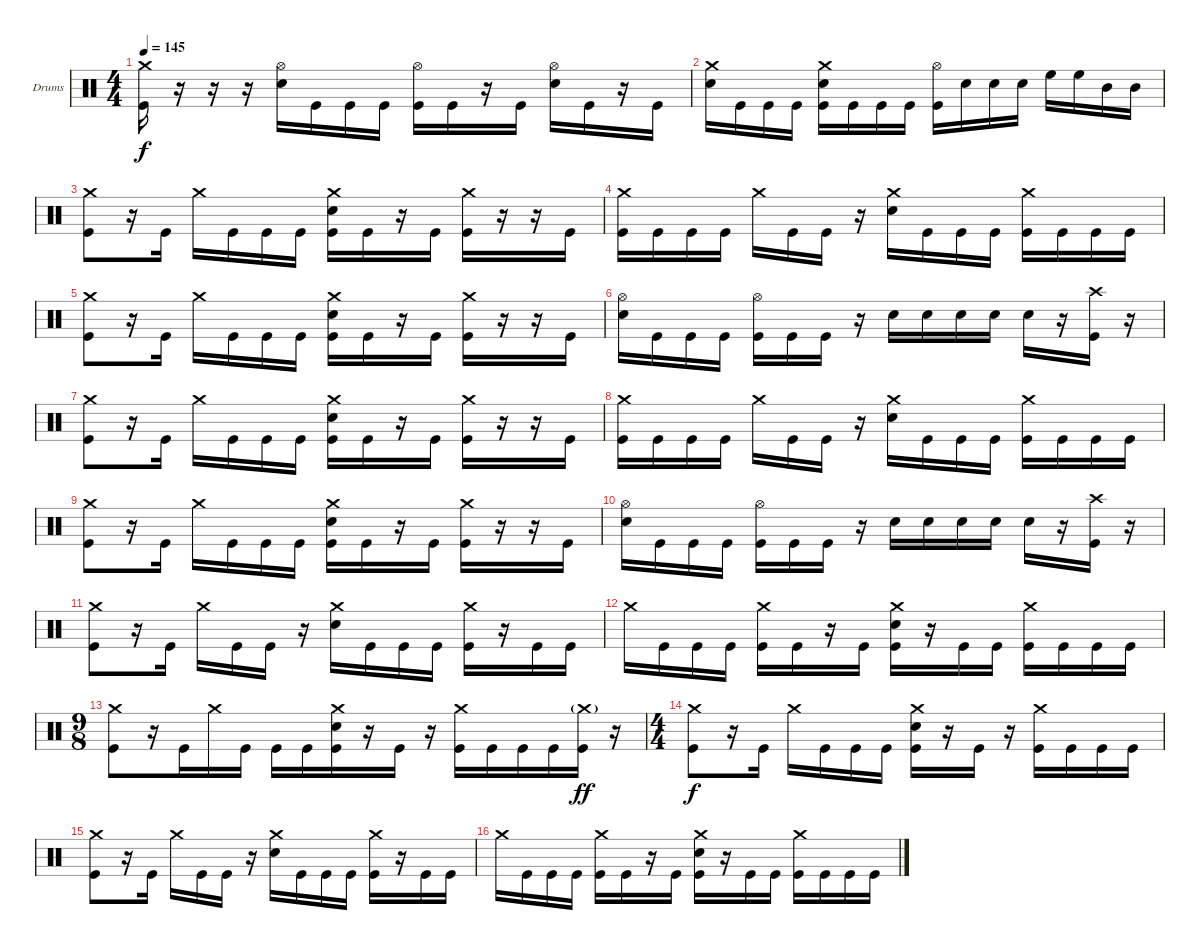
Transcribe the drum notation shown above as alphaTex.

\bracketExtendMode groupsimilarinstruments
\firstSystemTrackNameOrientation horizontal
\otherSystemsTrackNameOrientation horizontal
\track ("Drumkit" "Drums") {instrument percussion}
\staff {score}
\articulation defaults
\ts (4 4)
\tempo 145
\clef neutral
\ks c
("Crash medium (hit)" "Kick (hit)").16{dy f} r.16 r.16 r.16 ("Hi-Hat (open)" "Snare (hit) 2").16 "Kick (hit)".16 "Kick (hit)".16 "Kick (hit)".16 ("Hi-Hat (open)" "Kick (hit)").16 "Kick (hit)".16 r.16 "Kick (hit)".16 ("Hi-Hat (open)" "Snare (hit) 2").16 "Kick (hit)".16 r.16 "Kick (hit)".16 |
("Crash medium (hit)" "Snare (hit) 2").16 "Kick (hit)".16 "Kick (hit)".16 "Kick (hit)".16 ("Crash medium (hit)" "Snare (hit) 2" "Kick (hit)").16 "Kick (hit)".16 "Kick (hit)".16 "Kick (hit)".16 ("Hi-Hat (open)" "Kick (hit)").16 "Snare (hit) 2".16 "Snare (hit) 2".16 "Snare (hit) 2".16 "High Floor Tom (hit)".16 "High Floor Tom (hit)".16 "Mid Tom (hit)".16 "Mid Tom (hit)".16 |
("Crash medium (hit)" "Kick (hit)").8 r.16 "Kick (hit)".16 "Crash medium (hit)".16 "Kick (hit)".16 "Kick (hit)".16 "Kick (hit)".16 ("Crash medium (hit)" "Snare (hit) 2" "Kick (hit)").16 "Kick (hit)".16 r.16 "Kick (hit)".16 ("Crash medium (hit)" "Kick (hit)").16 r.16 r.16 "Kick (hit)".16 |
("Crash medium (hit)" "Kick (hit)").16 "Kick (hit)".16 "Kick (hit)".16 "Kick (hit)".16 "Crash medium (hit)".16 "Kick (hit)".16 "Kick (hit)".16 r.16 ("Crash medium (hit)" "Snare (hit) 2").16 "Kick (hit)".16 "Kick (hit)".16 "Kick (hit)".16 ("Crash medium (hit)" "Kick (hit)").16 "Kick (hit)".16 "Kick (hit)".16 "Kick (hit)".16 |
("Crash medium (hit)" "Kick (hit)").8 r.16 "Kick (hit)".16 "Crash medium (hit)".16 "Kick (hit)".16 "Kick (hit)".16 "Kick (hit)".16 ("Crash medium (hit)" "Snare (hit) 2" "Kick (hit)").16 "Kick (hit)".16 r.16 "Kick (hit)".16 ("Crash medium (hit)" "Kick (hit)").16 r.16 r.16 "Kick (hit)".16 |
("Hi-Hat (open)" "Snare (hit) 2").16 "Kick (hit)".16 "Kick (hit)".16 "Kick (hit)".16 ("Hi-Hat (open)" "Kick (hit)").16 "Kick (hit)".16 "Kick (hit)".16 r.16 "Snare (hit) 2".16 "Snare (hit) 2".16 "Snare (hit) 2".16 "Snare (hit) 2".16 "Snare (hit) 2".16 r.16 ("Crash high (hit)" "Kick (hit)").16 r.16 |
("Crash medium (hit)" "Kick (hit)").8 r.16 "Kick (hit)".16 "Crash medium (hit)".16 "Kick (hit)".16 "Kick (hit)".16 "Kick (hit)".16 ("Crash medium (hit)" "Snare (hit) 2" "Kick (hit)").16 "Kick (hit)".16 r.16 "Kick (hit)".16 ("Crash medium (hit)" "Kick (hit)").16 r.16 r.16 "Kick (hit)".16 |
("Crash medium (hit)" "Kick (hit)").16 "Kick (hit)".16 "Kick (hit)".16 "Kick (hit)".16 "Crash medium (hit)".16 "Kick (hit)".16 "Kick (hit)".16 r.16 ("Crash medium (hit)" "Snare (hit) 2").16 "Kick (hit)".16 "Kick (hit)".16 "Kick (hit)".16 ("Crash medium (hit)" "Kick (hit)").16 "Kick (hit)".16 "Kick (hit)".16 "Kick (hit)".16 |
("Crash medium (hit)" "Kick (hit)").8 r.16 "Kick (hit)".16 "Crash medium (hit)".16 "Kick (hit)".16 "Kick (hit)".16 "Kick (hit)".16 ("Crash medium (hit)" "Snare (hit) 2" "Kick (hit)").16 "Kick (hit)".16 r.16 "Kick (hit)".16 ("Crash medium (hit)" "Kick (hit)").16 r.16 r.16 "Kick (hit)".16 |
("Hi-Hat (open)" "Snare (hit) 2").16 "Kick (hit)".16 "Kick (hit)".16 "Kick (hit)".16 ("Hi-Hat (open)" "Kick (hit)").16 "Kick (hit)".16 "Kick (hit)".16 r.16 "Snare (hit) 2".16 "Snare (hit) 2".16 "Snare (hit) 2".16 "Snare (hit) 2".16 "Snare (hit) 2".16 r.16 ("Crash high (hit)" "Kick (hit)").16 r.16 |
("Crash medium (hit)" "Kick (hit)").8 r.16 "Kick (hit)".16 "Crash medium (hit)".16 "Kick (hit)".16 "Kick (hit)".16 r.16 ("Crash medium (hit)" "Snare (hit) 2").16 "Kick (hit)".16 "Kick (hit)".16 "Kick (hit)".16 ("Crash medium (hit)" "Kick (hit)").16 r.16 "Kick (hit)".16 "Kick (hit)".16 |
"Crash medium (hit)".16 "Kick (hit)".16 "Kick (hit)".16 "Kick (hit)".16 ("Crash medium (hit)" "Kick (hit)").16 "Kick (hit)".16 r.16 "Kick (hit)".16 ("Crash medium (hit)" "Snare (hit) 2" "Kick (hit)").16 r.16 "Kick (hit)".16 "Kick (hit)".16 ("Crash medium (hit)" "Kick (hit)").16 "Kick (hit)".16 "Kick (hit)".16 "Kick (hit)".16 |
\ts (9 8)
\beaming (8 3 3 3)
("Crash medium (hit)" "Kick (hit)").8 r.16 "Kick (hit)".16 "Crash medium (hit)".16 "Kick (hit)".16 "Kick (hit)".16 "Kick (hit)".16 ("Crash medium (hit)" "Snare (hit) 2" "Kick (hit)").16 r.16 "Kick (hit)".16 r.16 ("Crash medium (hit)" "Kick (hit)").16 "Kick (hit)".16 "Kick (hit)".16 "Kick (hit)".16 ("Crash medium (hit)"{g} "Kick (hit)").16{dy ff} r.16 |
\ts (4 4)
\beaming (8 2 2 2 2)
("Crash medium (hit)" "Kick (hit)").8{dy f} r.16 "Kick (hit)".16 "Crash medium (hit)".16 "Kick (hit)".16 "Kick (hit)".16 "Kick (hit)".16 ("Crash medium (hit)" "Snare (hit) 2" "Kick (hit)").16 r.16 "Kick (hit)".16 r.16 ("Crash medium (hit)" "Kick (hit)").16 "Kick (hit)".16 "Kick (hit)".16 "Kick (hit)".16 |
("Crash medium (hit)" "Kick (hit)").8 r.16 "Kick (hit)".16 "Crash medium (hit)".16 "Kick (hit)".16 "Kick (hit)".16 r.16 ("Crash medium (hit)" "Snare (hit) 2").16 "Kick (hit)".16 "Kick (hit)".16 "Kick (hit)".16 ("Crash medium (hit)" "Kick (hit)").16 r.16 "Kick (hit)".16 "Kick (hit)".16 |
"Crash medium (hit)".16 "Kick (hit)".16 "Kick (hit)".16 "Kick (hit)".16 ("Crash medium (hit)" "Kick (hit)").16 "Kick (hit)".16 r.16 "Kick (hit)".16 ("Crash medium (hit)" "Snare (hit) 2" "Kick (hit)").16 r.16 "Kick (hit)".16 "Kick (hit)".16 ("Crash medium (hit)" "Kick (hit)").16 "Kick (hit)".16 "Kick (hit)".16 "Kick (hit)".16
